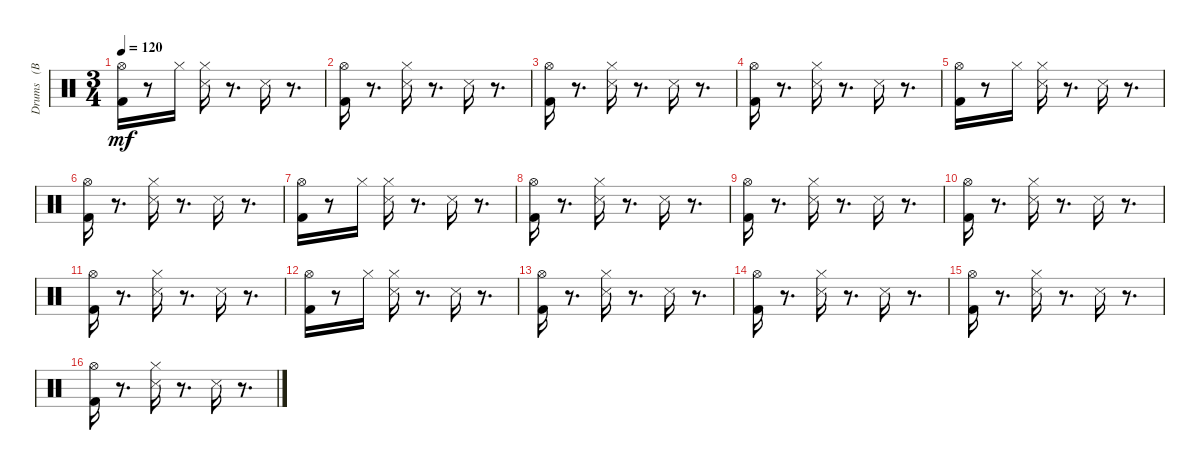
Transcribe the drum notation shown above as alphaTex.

\track ("Drums   (BB)" "Drums   (B") {instrument percussion}
\staff {score}
\articulation defaults
\ts (3 4)
\tempo 120
\clef neutral
\ks c
("Kick (hit) 2" "Hi-Hat (open)").16{dy mf} r.8 "Hi-Hat (closed)".16 ("Hi-Hat (closed)" "Snare (side stick) 3").16 r.8{d} "Snare (side stick) 3".16 r.8{d} |
("Kick (hit) 2" "Hi-Hat (open)").16 r.8{d} ("Hi-Hat (closed)" "Snare (side stick) 3").16 r.8{d} "Snare (side stick) 3".16 r.8{d} |
("Kick (hit) 2" "Hi-Hat (open)").16 r.8{d} ("Hi-Hat (closed)" "Snare (side stick) 3").16 r.8{d} "Snare (side stick) 3".16 r.8{d} |
("Kick (hit) 2" "Hi-Hat (open)").16 r.8{d} ("Hi-Hat (closed)" "Snare (side stick) 3").16 r.8{d} "Snare (side stick) 3".16 r.8{d} |
("Kick (hit) 2" "Hi-Hat (open)").16 r.8 "Hi-Hat (closed)".16 ("Hi-Hat (closed)" "Snare (side stick) 3").16 r.8{d} "Snare (side stick) 3".16 r.8{d} |
("Kick (hit) 2" "Hi-Hat (open)").16 r.8{d} ("Hi-Hat (closed)" "Snare (side stick) 3").16 r.8{d} "Snare (side stick) 3".16 r.8{d} |
("Kick (hit) 2" "Hi-Hat (open)").16 r.8 "Hi-Hat (closed)".16 ("Hi-Hat (closed)" "Snare (side stick) 3").16 r.8{d} "Snare (side stick) 3".16 r.8{d} |
("Kick (hit) 2" "Hi-Hat (open)").16 r.8{d} ("Hi-Hat (closed)" "Snare (side stick) 3").16 r.8{d} "Snare (side stick) 3".16 r.8{d} |
("Kick (hit) 2" "Hi-Hat (open)").16 r.8{d} ("Hi-Hat (closed)" "Snare (side stick) 3").16 r.8{d} "Snare (side stick) 3".16 r.8{d} |
("Kick (hit) 2" "Hi-Hat (open)").16 r.8{d} ("Hi-Hat (closed)" "Snare (side stick) 3").16 r.8{d} "Snare (side stick) 3".16 r.8{d} |
("Kick (hit) 2" "Hi-Hat (open)").16 r.8{d} ("Hi-Hat (closed)" "Snare (side stick) 3").16 r.8{d} "Snare (side stick) 3".16 r.8{d} |
("Kick (hit) 2" "Hi-Hat (open)").16 r.8 "Hi-Hat (closed)".16 ("Hi-Hat (closed)" "Snare (side stick) 3").16 r.8{d} "Snare (side stick) 3".16 r.8{d} |
("Kick (hit) 2" "Hi-Hat (open)").16 r.8{d} ("Hi-Hat (closed)" "Snare (side stick) 3").16 r.8{d} "Snare (side stick) 3".16 r.8{d} |
("Kick (hit) 2" "Hi-Hat (open)").16 r.8{d} ("Hi-Hat (closed)" "Snare (side stick) 3").16 r.8{d} "Snare (side stick) 3".16 r.8{d} |
("Kick (hit) 2" "Hi-Hat (open)").16 r.8{d} ("Hi-Hat (closed)" "Snare (side stick) 3").16 r.8{d} "Snare (side stick) 3".16 r.8{d} |
("Kick (hit) 2" "Hi-Hat (open)").16 r.8{d} ("Hi-Hat (closed)" "Snare (side stick) 3").16 r.8{d} "Snare (side stick) 3".16 r.8{d}
